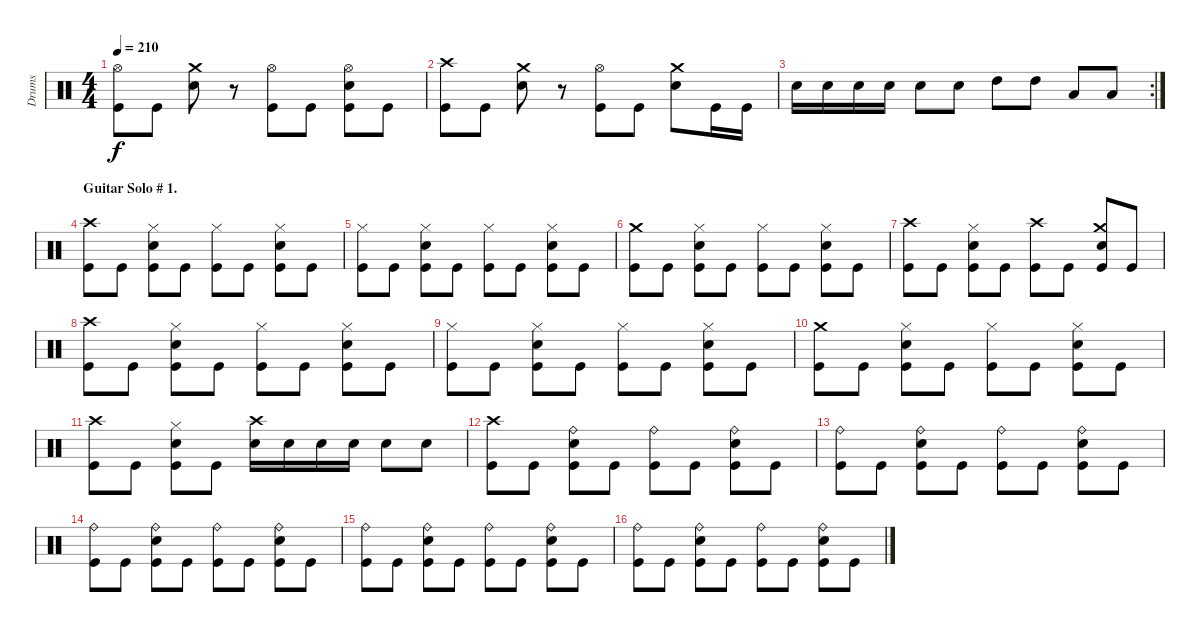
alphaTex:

\track ("Drums" "Drums") {instrument percussion}
\staff {score}
\articulation defaults
\ts (4 4)
\tempo 210
\clef neutral
\ks c
("Hi-Hat (open)" "Kick (hit)").8{dy f} "Kick (hit)".8 ("Crash medium (hit)" "Electric Snare (hit)").8 r.8 ("Hi-Hat (open)" "Kick (hit)").8 "Kick (hit)".8 ("Hi-Hat (open)" "Electric Snare (hit)" "Kick (hit)").8 "Kick (hit)".8 |
("Crash high (hit)" "Kick (hit)").8 "Kick (hit)".8 ("Crash medium (hit)" "Electric Snare (hit)").8 r.8 ("Hi-Hat (open)" "Kick (hit)").8 "Kick (hit)".8 ("Crash medium (hit)" "Electric Snare (hit)").8 "Kick (hit)".16 "Kick (hit)".16 |
\rc 2 "Electric Snare (hit)".16 "Electric Snare (hit)".16 "Electric Snare (hit)".16 "Electric Snare (hit)".16 "Electric Snare (hit)".8 "Electric Snare (hit)".8 "High Tom (hit)".8 "High Tom (hit)".8 "Low Tom (hit)".8 "Low Tom (hit)".8
|
\section ("" "Guitar Solo # 1.")
("Crash high (hit)" "Kick (hit)").8 "Kick (hit)".8 ("Hi-Hat (closed)" "Electric Snare (hit)" "Kick (hit)").8 "Kick (hit)".8 ("Hi-Hat (closed)" "Kick (hit)").8 "Kick (hit)".8 ("Hi-Hat (closed)" "Electric Snare (hit)" "Kick (hit)").8 "Kick (hit)".8 |
("Hi-Hat (closed)" "Kick (hit)").8 "Kick (hit)".8 ("Hi-Hat (closed)" "Electric Snare (hit)" "Kick (hit)").8 "Kick (hit)".8 ("Hi-Hat (closed)" "Kick (hit)").8 "Kick (hit)".8 ("Hi-Hat (closed)" "Electric Snare (hit)" "Kick (hit)").8 "Kick (hit)".8 |
("Crash medium (hit)" "Kick (hit)").8 "Kick (hit)".8 ("Hi-Hat (closed)" "Electric Snare (hit)" "Kick (hit)").8 "Kick (hit)".8 ("Hi-Hat (closed)" "Kick (hit)").8 "Kick (hit)".8 ("Hi-Hat (closed)" "Electric Snare (hit)" "Kick (hit)").8 "Kick (hit)".8 |
("Crash high (hit)" "Kick (hit)").8 "Kick (hit)".8 ("Hi-Hat (closed)" "Electric Snare (hit)" "Kick (hit)").8 "Kick (hit)".8 ("Crash high (hit)" "Kick (hit)").8 "Kick (hit)".8 ("Crash medium (hit)" "Electric Snare (hit)" "Kick (hit)").8 "Kick (hit)".8 |
("Crash high (hit)" "Kick (hit)").8 "Kick (hit)".8 ("Hi-Hat (closed)" "Electric Snare (hit)" "Kick (hit)").8 "Kick (hit)".8 ("Hi-Hat (closed)" "Kick (hit)").8 "Kick (hit)".8 ("Hi-Hat (closed)" "Electric Snare (hit)" "Kick (hit)").8 "Kick (hit)".8 |
("Hi-Hat (closed)" "Kick (hit)").8 "Kick (hit)".8 ("Hi-Hat (closed)" "Electric Snare (hit)" "Kick (hit)").8 "Kick (hit)".8 ("Hi-Hat (closed)" "Kick (hit)").8 "Kick (hit)".8 ("Hi-Hat (closed)" "Electric Snare (hit)" "Kick (hit)").8 "Kick (hit)".8 |
("Crash medium (hit)" "Kick (hit)").8 "Kick (hit)".8 ("Hi-Hat (closed)" "Electric Snare (hit)" "Kick (hit)").8 "Kick (hit)".8 ("Hi-Hat (closed)" "Kick (hit)").8 "Kick (hit)".8 ("Hi-Hat (closed)" "Electric Snare (hit)" "Kick (hit)").8 "Kick (hit)".8 |
("Crash high (hit)" "Kick (hit)").8 "Kick (hit)".8 ("Hi-Hat (closed)" "Electric Snare (hit)" "Kick (hit)").8 "Kick (hit)".8 ("Crash high (hit)" "Electric Snare (hit)").16 "Electric Snare (hit)".16 "Electric Snare (hit)".16 "Electric Snare (hit)".16 "Electric Snare (hit)".8 "Electric Snare (hit)".8 |
("Crash high (hit)" "Kick (hit)").8 "Kick (hit)".8 ("Ride (bell)" "Electric Snare (hit)" "Kick (hit)").8 "Kick (hit)".8 ("Ride (bell)" "Kick (hit)").8 "Kick (hit)".8 ("Ride (bell)" "Electric Snare (hit)" "Kick (hit)").8 "Kick (hit)".8 |
("Ride (bell)" "Kick (hit)").8 "Kick (hit)".8 ("Ride (bell)" "Electric Snare (hit)" "Kick (hit)").8 "Kick (hit)".8 ("Ride (bell)" "Kick (hit)").8 "Kick (hit)".8 ("Ride (bell)" "Electric Snare (hit)" "Kick (hit)").8 "Kick (hit)".8 |
("Ride (bell)" "Kick (hit)").8 "Kick (hit)".8 ("Ride (bell)" "Electric Snare (hit)" "Kick (hit)").8 "Kick (hit)".8 ("Ride (bell)" "Kick (hit)").8 "Kick (hit)".8 ("Ride (bell)" "Electric Snare (hit)" "Kick (hit)").8 "Kick (hit)".8 |
("Ride (bell)" "Kick (hit)").8 "Kick (hit)".8 ("Ride (bell)" "Electric Snare (hit)" "Kick (hit)").8 "Kick (hit)".8 ("Ride (bell)" "Kick (hit)").8 "Kick (hit)".8 ("Ride (bell)" "Electric Snare (hit)" "Kick (hit)").8 "Kick (hit)".8 |
("Ride (bell)" "Kick (hit)").8 "Kick (hit)".8 ("Ride (bell)" "Electric Snare (hit)" "Kick (hit)").8 "Kick (hit)".8 ("Ride (bell)" "Kick (hit)").8 "Kick (hit)".8 ("Ride (bell)" "Electric Snare (hit)" "Kick (hit)").8 "Kick (hit)".8
